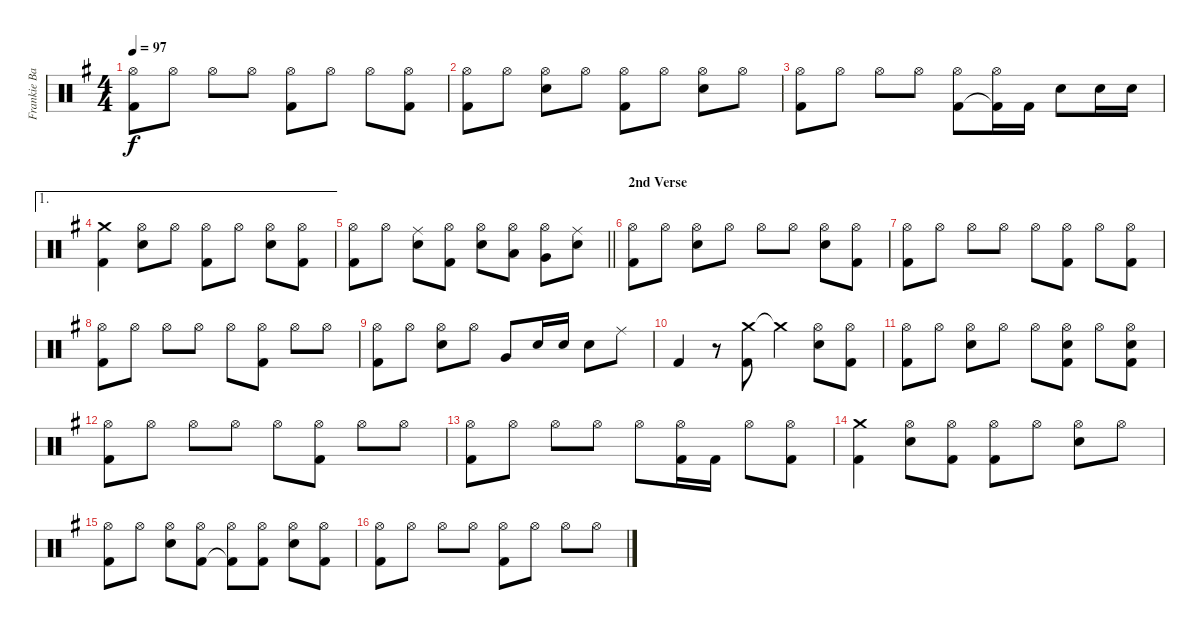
\track ("Frankie Banali" "Frankie Ba") {instrument percussion}
\staff {score}
\articulation defaults
\ts (4 4)
\tempo 97
\clef neutral
\ks g
("Hi-Hat (open)" "Kick (hit) 2").8{dy f} "Hi-Hat (open)".8 "Hi-Hat (open)".8 "Hi-Hat (open)".8 ("Hi-Hat (open)" "Kick (hit) 2").8 "Hi-Hat (open)".8 "Hi-Hat (open)".8 ("Hi-Hat (open)" "Kick (hit) 2").8 |
("Hi-Hat (open)" "Kick (hit) 2").8 "Hi-Hat (open)".8 ("Hi-Hat (open)" "Snare (hit) 2").8 "Hi-Hat (open)".8 ("Hi-Hat (open)" "Kick (hit) 2").8 "Hi-Hat (open)".8 ("Hi-Hat (open)" "Snare (hit) 2").8 "Hi-Hat (open)".8 |
("Hi-Hat (open)" "Kick (hit) 2").8 "Hi-Hat (open)".8 "Hi-Hat (open)".8 "Hi-Hat (open)".8 ("Hi-Hat (open)" "Kick (hit) 2").8 ("Hi-Hat (open)" "Kick (hit) 2"{t}).16 "Kick (hit) 2".16 "Snare (hit) 2".8 "Snare (hit) 2".16 "Snare (hit) 2".16 |
\ae 1
("Crash medium (hit)" "Kick (hit) 2").4 ("Hi-Hat (open)" "Snare (hit) 2").8 "Hi-Hat (open)".8 ("Hi-Hat (open)" "Kick (hit) 2").8 "Hi-Hat (open)".8 ("Hi-Hat (open)" "Snare (hit) 2").8 ("Hi-Hat (open)" "Kick (hit) 2").8 |
\barLineRight lightlight
("Hi-Hat (open)" "Kick (hit) 2").8 "Hi-Hat (open)".8 ("Ride (middle)" "Snare (hit) 2").8 ("Hi-Hat (open)" "Kick (hit) 2").8 ("Hi-Hat (open)" "Snare (hit) 2").8 ("Hi-Hat (open)" "Low Tom (hit)").8 ("Hi-Hat (open)" "Very Low Tom (hit)").8 ("Ride (middle)" "Snare (hit) 2").8 |
\section ("" "2nd Verse")
("Hi-Hat (open)" "Kick (hit) 2").8 "Hi-Hat (open)".8 ("Hi-Hat (open)" "Snare (hit) 2").8 "Hi-Hat (open)".8 "Hi-Hat (open)".8 "Hi-Hat (open)".8 ("Hi-Hat (open)" "Snare (hit) 2").8 ("Hi-Hat (open)" "Kick (hit) 2").8 |
("Hi-Hat (open)" "Kick (hit) 2").8 "Hi-Hat (open)".8 "Hi-Hat (open)".8 "Hi-Hat (open)".8 "Hi-Hat (open)".8 ("Hi-Hat (open)" "Kick (hit) 2").8 "Hi-Hat (open)".8 ("Hi-Hat (open)" "Kick (hit) 2").8 |
("Hi-Hat (open)" "Kick (hit) 2").8 "Hi-Hat (open)".8 "Hi-Hat (open)".8 "Hi-Hat (open)".8 "Hi-Hat (open)".8 ("Hi-Hat (open)" "Kick (hit) 2").8 "Hi-Hat (open)".8 "Hi-Hat (open)".8 |
("Hi-Hat (open)" "Kick (hit) 2").8 "Hi-Hat (open)".8 ("Hi-Hat (open)" "Snare (hit) 2").8 "Hi-Hat (open)".8 "Very Low Tom (hit)".8 "Snare (hit) 2".16 "Snare (hit) 2".16 "Snare (hit) 2".8 "Ride (middle)".8 |
"Kick (hit) 2".4 r.8 ("Crash medium (hit)" "Kick (hit) 2").8 "Crash medium (hit)"{t}.4 ("Hi-Hat (open)" "Snare (hit) 2").8 ("Hi-Hat (open)" "Kick (hit) 2").8 |
("Hi-Hat (open)" "Kick (hit) 2").8 "Hi-Hat (open)".8 ("Hi-Hat (open)" "Snare (hit) 2").8 "Hi-Hat (open)".8 "Hi-Hat (open)".8 ("Hi-Hat (open)" "Snare (hit) 2" "Kick (hit) 2").8 "Hi-Hat (open)".8 ("Hi-Hat (open)" "Snare (hit) 2" "Kick (hit) 2").8 |
("Hi-Hat (open)" "Kick (hit) 2").8 "Hi-Hat (open)".8 "Hi-Hat (open)".8 "Hi-Hat (open)".8 "Hi-Hat (open)".8 ("Hi-Hat (open)" "Kick (hit) 2").8 "Hi-Hat (open)".8 "Hi-Hat (open)".8 |
("Hi-Hat (open)" "Kick (hit) 2").8 "Hi-Hat (open)".8 "Hi-Hat (open)".8 "Hi-Hat (open)".8 "Hi-Hat (open)".8 ("Hi-Hat (open)" "Kick (hit) 2").16 "Kick (hit) 2".16 "Hi-Hat (open)".8 ("Hi-Hat (open)" "Kick (hit) 2").8 |
("Crash medium (hit)" "Kick (hit) 2").4 ("Hi-Hat (open)" "Snare (hit) 2").8 ("Hi-Hat (open)" "Kick (hit) 2").8 ("Hi-Hat (open)" "Kick (hit) 2").8 "Hi-Hat (open)".8 ("Hi-Hat (open)" "Snare (hit) 2").8 "Hi-Hat (open)".8 |
("Hi-Hat (open)" "Kick (hit) 2").8 "Hi-Hat (open)".8 ("Hi-Hat (open)" "Snare (hit) 2").8 ("Hi-Hat (open)" "Kick (hit) 2").8 ("Hi-Hat (open)" "Kick (hit) 2"{t}).8 ("Hi-Hat (open)" "Kick (hit) 2").8 ("Hi-Hat (open)" "Snare (hit) 2").8 ("Hi-Hat (open)" "Kick (hit) 2").8 |
("Hi-Hat (open)" "Kick (hit) 2").8 "Hi-Hat (open)".8 "Hi-Hat (open)".8 "Hi-Hat (open)".8 ("Hi-Hat (open)" "Kick (hit) 2").8 "Hi-Hat (open)".8 "Hi-Hat (open)".8 "Hi-Hat (open)".8
